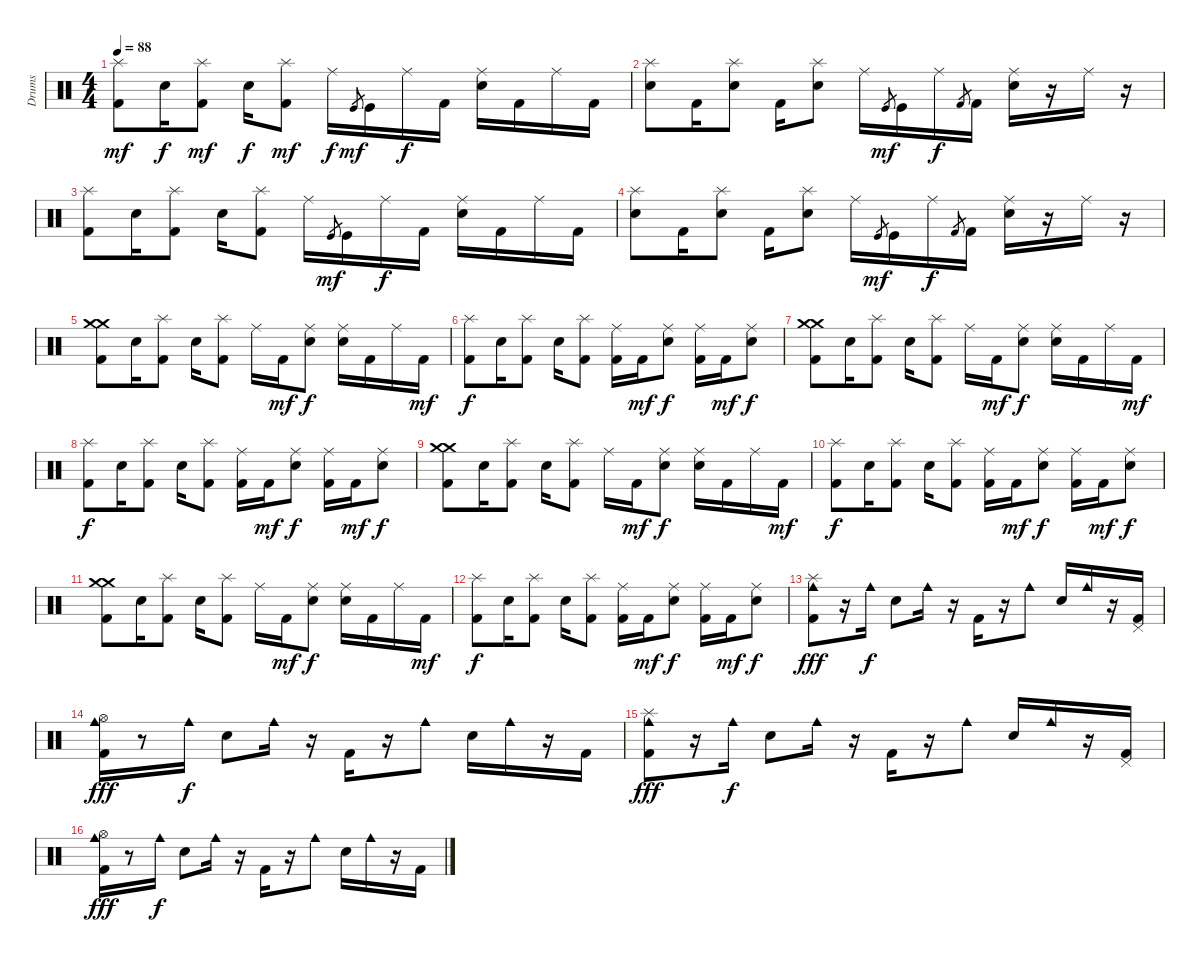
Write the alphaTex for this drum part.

\track ("Drums" "Drums") {instrument percussion}
\staff {score}
\articulation defaults
\ts (4 4)
\tempo 88
\clef neutral
\ks c
("Splash (hit)" "Kick (hit) 2").8{dy mf} "Electric Snare (hit)".16{dy f} ("Splash (hit)" "Kick (hit) 2").8{dy mf} "Electric Snare (hit)".16{dy f} ("Splash (hit)" "Kick (hit) 2").8{dy mf} "Ride (middle)".16{dy f} "Kick (hit)".8{gr dy mf} "Kick (hit)".16 "Ride (middle)".16{dy f} "Kick (hit) 2".16 ("Ride (middle)" "Electric Snare (hit)").16 "Kick (hit) 2".16 "Ride (middle)".16 "Kick (hit) 2".16 |
("Splash (hit)" "Electric Snare (hit)").8 "Kick (hit) 2".16 ("Splash (hit)" "Electric Snare (hit)").8 "Kick (hit) 2".16 ("Splash (hit)" "Electric Snare (hit)").8 "Ride (middle)".16 "Kick (hit)".8{gr dy mf} "Kick (hit)".16 "Ride (middle)".16{dy f} "Kick (hit) 2".8{gr} "Kick (hit) 2".16 ("Ride (middle)" "Electric Snare (hit)").16 r.16 "Ride (middle)".16 r.16 |
("Splash (hit)" "Kick (hit) 2").8 "Electric Snare (hit)".16 ("Splash (hit)" "Kick (hit) 2").8 "Electric Snare (hit)".16 ("Splash (hit)" "Kick (hit) 2").8 "Ride (middle)".16 "Kick (hit)".8{gr dy mf} "Kick (hit)".16 "Ride (middle)".16{dy f} "Kick (hit) 2".16 ("Ride (middle)" "Electric Snare (hit)").16 "Kick (hit) 2".16 "Ride (middle)".16 "Kick (hit) 2".16 |
("Splash (hit)" "Electric Snare (hit)").8 "Kick (hit) 2".16 ("Splash (hit)" "Electric Snare (hit)").8 "Kick (hit) 2".16 ("Splash (hit)" "Electric Snare (hit)").8 "Ride (middle)".16 "Kick (hit)".8{gr dy mf} "Kick (hit)".16 "Ride (middle)".16{dy f} "Kick (hit) 2".8{gr} "Kick (hit) 2".16 ("Ride (middle)" "Electric Snare (hit)").16 r.16 "Ride (middle)".16 r.16 |
("Crash medium (hit)" "Crash medium (hit)" "Kick (hit) 2").8 "Electric Snare (hit)".16 ("Splash (hit)" "Kick (hit) 2").8 "Electric Snare (hit)".16 ("Splash (hit)" "Kick (hit) 2").8 "Ride (middle)".16 "Kick (hit) 2".16{dy mf} ("Ride (middle)" "Electric Snare (hit)").8{dy f} ("Ride (middle)" "Electric Snare (hit)").16 "Kick (hit) 2".16 "Ride (middle)".16 "Kick (hit) 2".16{dy mf} |
("Splash (hit)" "Kick (hit) 2").8{dy f} "Electric Snare (hit)".16 ("Splash (hit)" "Kick (hit) 2").8 "Electric Snare (hit)".16 ("Splash (hit)" "Kick (hit) 2").8 ("Ride (middle)" "Kick (hit) 2").16 "Kick (hit) 2".16{dy mf} ("Ride (middle)" "Electric Snare (hit)").8{dy f} ("Ride (middle)" "Kick (hit) 2").16 "Kick (hit) 2".16{dy mf} ("Ride (middle)" "Electric Snare (hit)").8{dy f} |
("Crash medium (hit)" "Crash medium (hit)" "Kick (hit) 2").8 "Electric Snare (hit)".16 ("Splash (hit)" "Kick (hit) 2").8 "Electric Snare (hit)".16 ("Splash (hit)" "Kick (hit) 2").8 "Ride (middle)".16 "Kick (hit) 2".16{dy mf} ("Ride (middle)" "Electric Snare (hit)").8{dy f} ("Ride (middle)" "Electric Snare (hit)").16 "Kick (hit) 2".16 "Ride (middle)".16 "Kick (hit) 2".16{dy mf} |
("Splash (hit)" "Kick (hit) 2").8{dy f} "Electric Snare (hit)".16 ("Splash (hit)" "Kick (hit) 2").8 "Electric Snare (hit)".16 ("Splash (hit)" "Kick (hit) 2").8 ("Ride (middle)" "Kick (hit) 2").16 "Kick (hit) 2".16{dy mf} ("Ride (middle)" "Electric Snare (hit)").8{dy f} ("Ride (middle)" "Kick (hit) 2").16 "Kick (hit) 2".16{dy mf} ("Ride (middle)" "Electric Snare (hit)").8{dy f} |
("Crash medium (hit)" "Crash medium (hit)" "Kick (hit) 2").8 "Electric Snare (hit)".16 ("Splash (hit)" "Kick (hit) 2").8 "Electric Snare (hit)".16 ("Splash (hit)" "Kick (hit) 2").8 "Ride (middle)".16 "Kick (hit) 2".16{dy mf} ("Ride (middle)" "Electric Snare (hit)").8{dy f} ("Ride (middle)" "Electric Snare (hit)").16 "Kick (hit) 2".16 "Ride (middle)".16 "Kick (hit) 2".16{dy mf} |
("Splash (hit)" "Kick (hit) 2").8{dy f} "Electric Snare (hit)".16 ("Splash (hit)" "Kick (hit) 2").8 "Electric Snare (hit)".16 ("Splash (hit)" "Kick (hit) 2").8 ("Ride (middle)" "Kick (hit) 2").16 "Kick (hit) 2".16{dy mf} ("Ride (middle)" "Electric Snare (hit)").8{dy f} ("Ride (middle)" "Kick (hit) 2").16 "Kick (hit) 2".16{dy mf} ("Ride (middle)" "Electric Snare (hit)").8{dy f} |
("Crash medium (hit)" "Crash medium (hit)" "Kick (hit) 2").8 "Electric Snare (hit)".16 ("Splash (hit)" "Kick (hit) 2").8 "Electric Snare (hit)".16 ("Splash (hit)" "Kick (hit) 2").8 "Ride (middle)".16 "Kick (hit) 2".16{dy mf} ("Ride (middle)" "Electric Snare (hit)").8{dy f} ("Ride (middle)" "Electric Snare (hit)").16 "Kick (hit) 2".16 "Ride (middle)".16 "Kick (hit) 2".16{dy mf} |
("Splash (hit)" "Kick (hit) 2").8{dy f} "Electric Snare (hit)".16 ("Splash (hit)" "Kick (hit) 2").8 "Electric Snare (hit)".16 ("Splash (hit)" "Kick (hit) 2").8 ("Ride (middle)" "Kick (hit) 2").16 "Kick (hit) 2".16{dy mf} ("Ride (middle)" "Electric Snare (hit)").8{dy f} ("Ride (middle)" "Kick (hit) 2").16 "Kick (hit) 2".16{dy mf} ("Ride (middle)" "Electric Snare (hit)").8{dy f} |
("Splash (hit)" "Cowbell medium (hit)" "Kick (hit) 2").8{dy fff} r.16 "Cowbell medium (hit)".16{dy f} "Electric Snare (hit)".8 "Cowbell medium (hit)".16 r.16 "Kick (hit) 2".16 r.16 "Cowbell medium (hit)".8 "Electric Snare (hit)".16 "Cowbell medium (hit)".16 r.16 ("Pedal Hi-Hat (hit)" "Kick (hit) 2").16 |
("Hi-Hat (open)" "Cowbell medium (hit)" "Kick (hit) 2").16{dy fff} r.8 "Cowbell medium (hit)".16{dy f} "Electric Snare (hit)".8 "Cowbell medium (hit)".16 r.16 "Kick (hit) 2".16 r.16 "Cowbell medium (hit)".8 "Electric Snare (hit)".16 "Cowbell medium (hit)".16 r.16 "Kick (hit) 2".16 |
("Splash (hit)" "Cowbell medium (hit)" "Kick (hit) 2").8{dy fff} r.16 "Cowbell medium (hit)".16{dy f} "Electric Snare (hit)".8 "Cowbell medium (hit)".16 r.16 "Kick (hit) 2".16 r.16 "Cowbell medium (hit)".8 "Electric Snare (hit)".16 "Cowbell medium (hit)".16 r.16 ("Pedal Hi-Hat (hit)" "Kick (hit) 2").16 |
("Hi-Hat (open)" "Cowbell medium (hit)" "Kick (hit) 2").16{dy fff} r.8 "Cowbell medium (hit)".16{dy f} "Electric Snare (hit)".8 "Cowbell medium (hit)".16 r.16 "Kick (hit) 2".16 r.16 "Cowbell medium (hit)".8 "Electric Snare (hit)".16 "Cowbell medium (hit)".16 r.16 "Kick (hit) 2".16
